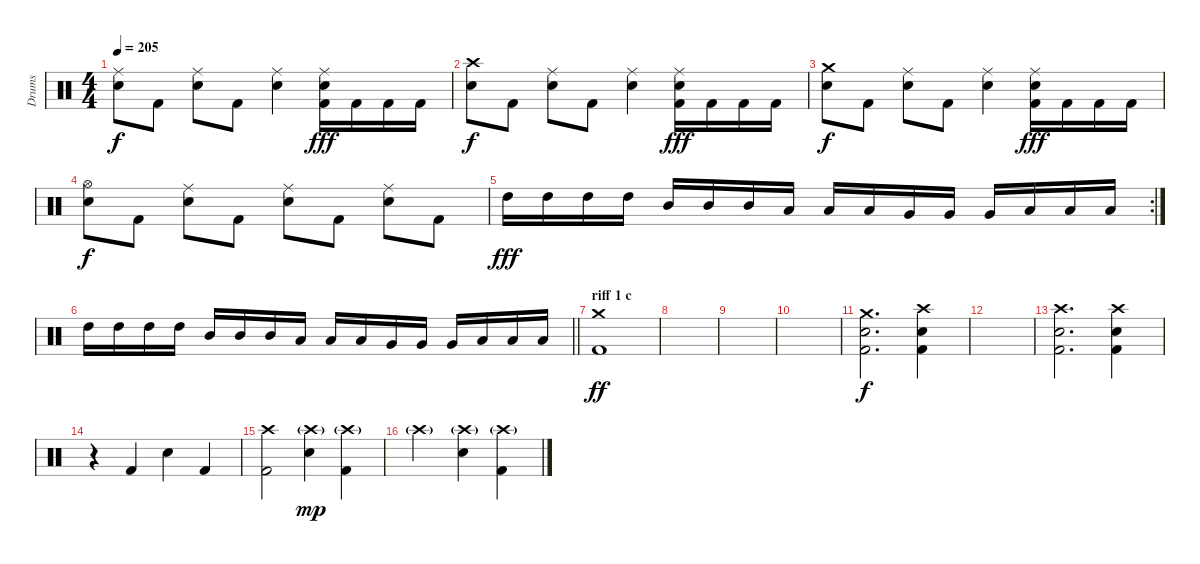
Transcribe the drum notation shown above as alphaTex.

\track ("Drums" "Drums") {instrument percussion}
\staff {score}
\articulation defaults
\ts (4 4)
\tempo 205
\clef neutral
\ks c
("Ride (middle)" "Snare (hit) 2").8{dy f} "Kick (hit) 2".8 ("Ride (middle)" "Snare (hit) 2").8 "Kick (hit) 2".8 ("Ride (middle)" "Snare (hit) 2").4 ("Ride (middle)" "Snare (hit) 2" "Kick (hit) 2").16{dy fff} "Kick (hit) 2".16 "Kick (hit) 2".16 "Kick (hit) 2".16 |
("Crash high (hit)" "Snare (hit) 2").8{dy f} "Kick (hit) 2".8 ("Ride (middle)" "Snare (hit) 2").8 "Kick (hit) 2".8 ("Ride (middle)" "Snare (hit) 2").4 ("Ride (middle)" "Snare (hit) 2" "Kick (hit) 2").16{dy fff} "Kick (hit) 2".16 "Kick (hit) 2".16 "Kick (hit) 2".16 |
("Crash medium (hit)" "Snare (hit) 2").8{dy f} "Kick (hit) 2".8 ("Ride (middle)" "Snare (hit) 2").8 "Kick (hit) 2".8 ("Ride (middle)" "Snare (hit) 2").4 ("Ride (middle)" "Snare (hit) 2" "Kick (hit) 2").16{dy fff} "Kick (hit) 2".16 "Kick (hit) 2".16 "Kick (hit) 2".16 |
("Hi-Hat (open)" "Snare (hit) 2").8{dy f} "Kick (hit) 2".8 ("Ride (middle)" "Snare (hit) 2").8 "Kick (hit) 2".8 ("Ride (middle)" "Snare (hit) 2").8 "Kick (hit) 2".8 ("Ride (middle)" "Snare (hit) 2").8 "Kick (hit) 2".8 |
\rc 2 "High Tom (hit)".16{dy fff} "High Tom (hit)".16 "High Tom (hit)".16 "High Tom (hit)".16 "Mid Tom (hit)".16 "Mid Tom (hit)".16 "Mid Tom (hit)".16 "Low Tom (hit)".16 "Low Tom (hit)".16 "Low Tom (hit)".16 "Very Low Tom (hit)".16 "Very Low Tom (hit)".16 "Very Low Tom (hit)".16 "Low Floor Tom (hit)".16 "Low Floor Tom (hit)".16 "Low Floor Tom (hit)".16
|
\barLineRight lightlight "High Tom (hit)".16 "High Tom (hit)".16 "High Tom (hit)".16 "High Tom (hit)".16 "Mid Tom (hit)".16 "Mid Tom (hit)".16 "Mid Tom (hit)".16 "Low Tom (hit)".16 "Low Tom (hit)".16 "Low Tom (hit)".16 "Very Low Tom (hit)".16 "Very Low Tom (hit)".16 "Very Low Tom (hit)".16 "Low Floor Tom (hit)".16 "Low Floor Tom (hit)".16 "Low Floor Tom (hit)".16
|
\section ("" "riff 1 с")
("Crash medium (hit)" "Kick (hit) 2").1{dy ff} |
|
|
|
("Crash medium (hit)" "Snare (hit) 2" "Kick (hit) 2").2{d dy f} ("Crash high (hit)" "Snare (hit) 2" "Kick (hit) 2").4 |
|
("Crash high (hit)" "Snare (hit) 2" "Kick (hit) 2").2{d} ("Crash high (hit)" "Snare (hit) 2" "Kick (hit) 2").4 |
r.4 "Kick (hit) 2".4 "Snare (hit) 2".4 "Kick (hit) 2".4 |
("Crash high (hit)" "Kick (hit) 2").2 ("Crash high (hit)"{g} "Snare (hit) 2").4{dy mp} ("Crash high (hit)"{g} "Kick (hit) 2").4 |
"Crash high (hit)"{g}.2 ("Crash high (hit)"{g} "Snare (hit) 2").4 ("Crash high (hit)"{g} "Kick (hit) 2").4
